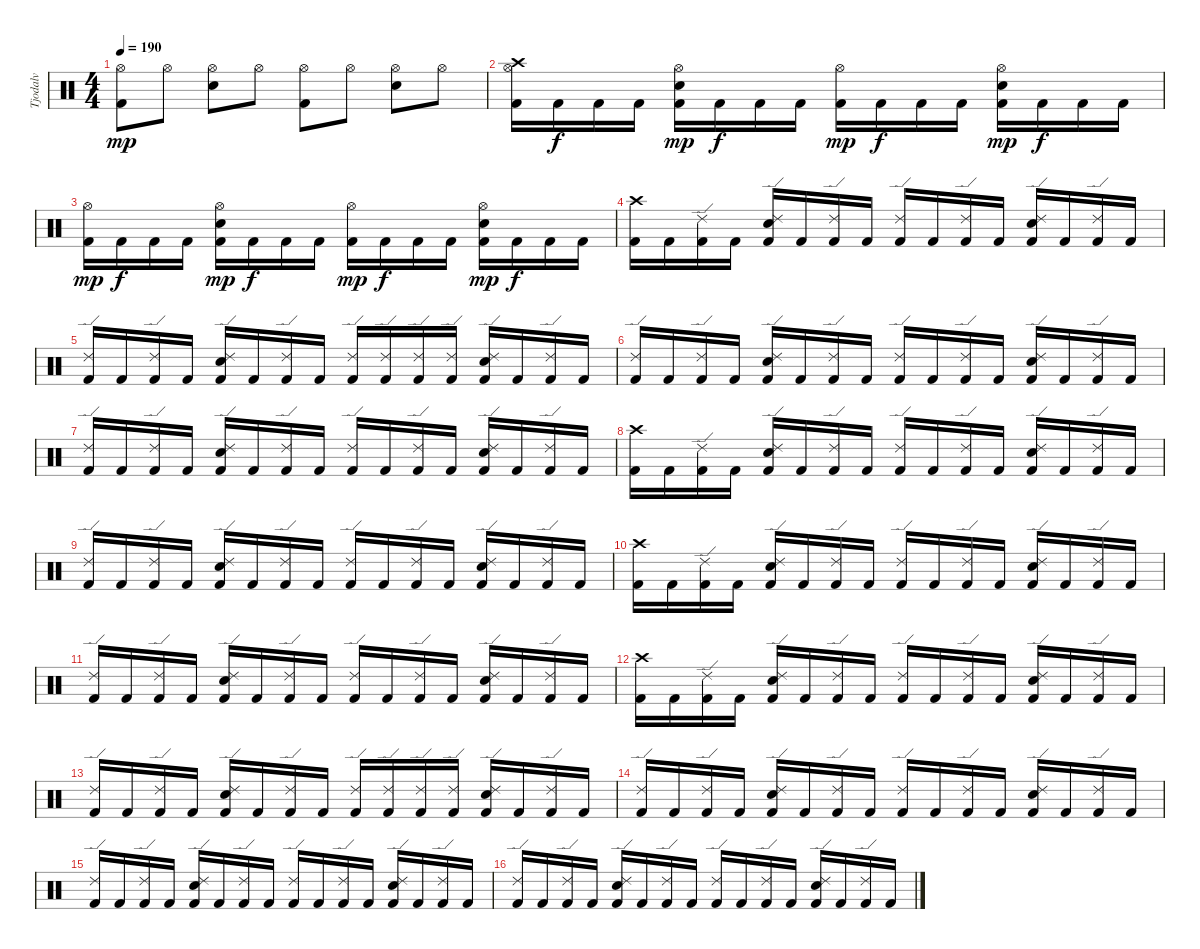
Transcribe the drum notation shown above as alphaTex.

\track ("Tjodalv" "Tjodalv") {instrument percussion}
\staff {score}
\articulation defaults
\ts (4 4)
\tempo 190
\clef neutral
\ks c
("Hi-Hat (open)" "Kick (hit) 2").8{dy mp} "Hi-Hat (open)".8 ("Hi-Hat (open)" "Electric Snare (hit)").8 "Hi-Hat (open)".8 ("Hi-Hat (open)" "Kick (hit) 2").8 "Hi-Hat (open)".8 ("Hi-Hat (open)" "Electric Snare (hit)").8 "Hi-Hat (open)".8 |
("Crash high (hit)" "Hi-Hat (open)" "Kick (hit) 2").16 "Kick (hit) 2".16{dy f} "Kick (hit) 2".16 "Kick (hit) 2".16 ("Hi-Hat (open)" "Electric Snare (hit)" "Kick (hit) 2").16{dy mp} "Kick (hit) 2".16{dy f} "Kick (hit) 2".16 "Kick (hit) 2".16 ("Hi-Hat (open)" "Kick (hit) 2").16{dy mp} "Kick (hit) 2".16{dy f} "Kick (hit) 2".16 "Kick (hit) 2".16 ("Hi-Hat (open)" "Electric Snare (hit)" "Kick (hit) 2").16{dy mp} "Kick (hit) 2".16{dy f} "Kick (hit) 2".16 "Kick (hit) 2".16 |
("Hi-Hat (open)" "Kick (hit) 2").16{dy mp} "Kick (hit) 2".16{dy f} "Kick (hit) 2".16 "Kick (hit) 2".16 ("Hi-Hat (open)" "Electric Snare (hit)" "Kick (hit) 2").16{dy mp} "Kick (hit) 2".16{dy f} "Kick (hit) 2".16 "Kick (hit) 2".16 ("Hi-Hat (open)" "Kick (hit) 2").16{dy mp} "Kick (hit) 2".16{dy f} "Kick (hit) 2".16 "Kick (hit) 2".16 ("Hi-Hat (open)" "Electric Snare (hit)" "Kick (hit) 2").16{dy mp} "Kick (hit) 2".16{dy f} "Kick (hit) 2".16 "Kick (hit) 2".16 |
("Crash high (hit)" "Kick (hit) 2").16 "Kick (hit) 2".16 ("Ride (edge) 2" "Kick (hit) 2").16 "Kick (hit) 2".16 ("Ride (edge) 2" "Electric Snare (hit)" "Kick (hit) 2").16 "Kick (hit) 2".16 ("Ride (edge) 2" "Kick (hit) 2").16 "Kick (hit) 2".16 ("Ride (edge) 2" "Kick (hit) 2").16 "Kick (hit) 2".16 ("Ride (edge) 2" "Kick (hit) 2").16 "Kick (hit) 2".16 ("Ride (edge) 2" "Electric Snare (hit)" "Kick (hit) 2").16 "Kick (hit) 2".16 ("Ride (edge) 2" "Kick (hit) 2").16 "Kick (hit) 2".16 |
("Ride (edge) 2" "Kick (hit) 2").16 "Kick (hit) 2".16 ("Ride (edge) 2" "Kick (hit) 2").16 "Kick (hit) 2".16 ("Ride (edge) 2" "Electric Snare (hit)" "Kick (hit) 2").16 "Kick (hit) 2".16 ("Ride (edge) 2" "Kick (hit) 2").16 "Kick (hit) 2".16 ("Ride (edge) 2" "Kick (hit) 2").16 ("Ride (edge) 2" "Kick (hit) 2").16 ("Ride (edge) 2" "Kick (hit) 2").16 ("Ride (edge) 2" "Kick (hit) 2").16 ("Ride (edge) 2" "Electric Snare (hit)" "Kick (hit) 2").16 "Kick (hit) 2".16 ("Ride (edge) 2" "Kick (hit) 2").16 "Kick (hit) 2".16 |
("Ride (edge) 2" "Kick (hit) 2").16 "Kick (hit) 2".16 ("Ride (edge) 2" "Kick (hit) 2").16 "Kick (hit) 2".16 ("Ride (edge) 2" "Electric Snare (hit)" "Kick (hit) 2").16 "Kick (hit) 2".16 ("Ride (edge) 2" "Kick (hit) 2").16 "Kick (hit) 2".16 ("Ride (edge) 2" "Kick (hit) 2").16 "Kick (hit) 2".16 ("Ride (edge) 2" "Kick (hit) 2").16 "Kick (hit) 2".16 ("Ride (edge) 2" "Electric Snare (hit)" "Kick (hit) 2").16 "Kick (hit) 2".16 ("Ride (edge) 2" "Kick (hit) 2").16 "Kick (hit) 2".16 |
("Ride (edge) 2" "Kick (hit) 2").16 "Kick (hit) 2".16 ("Ride (edge) 2" "Kick (hit) 2").16 "Kick (hit) 2".16 ("Ride (edge) 2" "Electric Snare (hit)" "Kick (hit) 2").16 "Kick (hit) 2".16 ("Ride (edge) 2" "Kick (hit) 2").16 "Kick (hit) 2".16 ("Ride (edge) 2" "Kick (hit) 2").16 "Kick (hit) 2".16 ("Ride (edge) 2" "Kick (hit) 2").16 "Kick (hit) 2".16 ("Ride (edge) 2" "Electric Snare (hit)" "Kick (hit) 2").16 "Kick (hit) 2".16 ("Ride (edge) 2" "Kick (hit) 2").16 "Kick (hit) 2".16 |
("Crash high (hit)" "Kick (hit) 2").16 "Kick (hit) 2".16 ("Ride (edge) 2" "Kick (hit) 2").16 "Kick (hit) 2".16 ("Ride (edge) 2" "Electric Snare (hit)" "Kick (hit) 2").16 "Kick (hit) 2".16 ("Ride (edge) 2" "Kick (hit) 2").16 "Kick (hit) 2".16 ("Ride (edge) 2" "Kick (hit) 2").16 "Kick (hit) 2".16 ("Ride (edge) 2" "Kick (hit) 2").16 "Kick (hit) 2".16 ("Ride (edge) 2" "Electric Snare (hit)" "Kick (hit) 2").16 "Kick (hit) 2".16 ("Ride (edge) 2" "Kick (hit) 2").16 "Kick (hit) 2".16 |
("Ride (edge) 2" "Kick (hit) 2").16 "Kick (hit) 2".16 ("Ride (edge) 2" "Kick (hit) 2").16 "Kick (hit) 2".16 ("Ride (edge) 2" "Electric Snare (hit)" "Kick (hit) 2").16 "Kick (hit) 2".16 ("Ride (edge) 2" "Kick (hit) 2").16 "Kick (hit) 2".16 ("Ride (edge) 2" "Kick (hit) 2").16 "Kick (hit) 2".16 ("Ride (edge) 2" "Kick (hit) 2").16 "Kick (hit) 2".16 ("Ride (edge) 2" "Electric Snare (hit)" "Kick (hit) 2").16 "Kick (hit) 2".16 ("Ride (edge) 2" "Kick (hit) 2").16 "Kick (hit) 2".16 |
("Crash high (hit)" "Kick (hit) 2").16 "Kick (hit) 2".16 ("Ride (edge) 2" "Kick (hit) 2").16 "Kick (hit) 2".16 ("Ride (edge) 2" "Electric Snare (hit)" "Kick (hit) 2").16 "Kick (hit) 2".16 ("Ride (edge) 2" "Kick (hit) 2").16 "Kick (hit) 2".16 ("Ride (edge) 2" "Kick (hit) 2").16 "Kick (hit) 2".16 ("Ride (edge) 2" "Kick (hit) 2").16 "Kick (hit) 2".16 ("Ride (edge) 2" "Electric Snare (hit)" "Kick (hit) 2").16 "Kick (hit) 2".16 ("Ride (edge) 2" "Kick (hit) 2").16 "Kick (hit) 2".16 |
("Ride (edge) 2" "Kick (hit) 2").16 "Kick (hit) 2".16 ("Ride (edge) 2" "Kick (hit) 2").16 "Kick (hit) 2".16 ("Ride (edge) 2" "Electric Snare (hit)" "Kick (hit) 2").16 "Kick (hit) 2".16 ("Ride (edge) 2" "Kick (hit) 2").16 "Kick (hit) 2".16 ("Ride (edge) 2" "Kick (hit) 2").16 "Kick (hit) 2".16 ("Ride (edge) 2" "Kick (hit) 2").16 "Kick (hit) 2".16 ("Ride (edge) 2" "Electric Snare (hit)" "Kick (hit) 2").16 "Kick (hit) 2".16 ("Ride (edge) 2" "Kick (hit) 2").16 "Kick (hit) 2".16 |
("Crash high (hit)" "Kick (hit) 2").16 "Kick (hit) 2".16 ("Ride (edge) 2" "Kick (hit) 2").16 "Kick (hit) 2".16 ("Ride (edge) 2" "Electric Snare (hit)" "Kick (hit) 2").16 "Kick (hit) 2".16 ("Ride (edge) 2" "Kick (hit) 2").16 "Kick (hit) 2".16 ("Ride (edge) 2" "Kick (hit) 2").16 "Kick (hit) 2".16 ("Ride (edge) 2" "Kick (hit) 2").16 "Kick (hit) 2".16 ("Ride (edge) 2" "Electric Snare (hit)" "Kick (hit) 2").16 "Kick (hit) 2".16 ("Ride (edge) 2" "Kick (hit) 2").16 "Kick (hit) 2".16 |
("Ride (edge) 2" "Kick (hit) 2").16 "Kick (hit) 2".16 ("Ride (edge) 2" "Kick (hit) 2").16 "Kick (hit) 2".16 ("Ride (edge) 2" "Electric Snare (hit)" "Kick (hit) 2").16 "Kick (hit) 2".16 ("Ride (edge) 2" "Kick (hit) 2").16 "Kick (hit) 2".16 ("Ride (edge) 2" "Kick (hit) 2").16 ("Ride (edge) 2" "Kick (hit) 2").16 ("Ride (edge) 2" "Kick (hit) 2").16 ("Ride (edge) 2" "Kick (hit) 2").16 ("Ride (edge) 2" "Electric Snare (hit)" "Kick (hit) 2").16 "Kick (hit) 2".16 ("Ride (edge) 2" "Kick (hit) 2").16 "Kick (hit) 2".16 |
("Ride (edge) 2" "Kick (hit) 2").16 "Kick (hit) 2".16 ("Ride (edge) 2" "Kick (hit) 2").16 "Kick (hit) 2".16 ("Ride (edge) 2" "Electric Snare (hit)" "Kick (hit) 2").16 "Kick (hit) 2".16 ("Ride (edge) 2" "Kick (hit) 2").16 "Kick (hit) 2".16 ("Ride (edge) 2" "Kick (hit) 2").16 "Kick (hit) 2".16 ("Ride (edge) 2" "Kick (hit) 2").16 "Kick (hit) 2".16 ("Ride (edge) 2" "Electric Snare (hit)" "Kick (hit) 2").16 "Kick (hit) 2".16 ("Ride (edge) 2" "Kick (hit) 2").16 "Kick (hit) 2".16 |
("Ride (edge) 2" "Kick (hit) 2").16 "Kick (hit) 2".16 ("Ride (edge) 2" "Kick (hit) 2").16 "Kick (hit) 2".16 ("Ride (edge) 2" "Electric Snare (hit)" "Kick (hit) 2").16 "Kick (hit) 2".16 ("Ride (edge) 2" "Kick (hit) 2").16 "Kick (hit) 2".16 ("Ride (edge) 2" "Kick (hit) 2").16 "Kick (hit) 2".16 ("Ride (edge) 2" "Kick (hit) 2").16 "Kick (hit) 2".16 ("Ride (edge) 2" "Electric Snare (hit)" "Kick (hit) 2").16 "Kick (hit) 2".16 ("Ride (edge) 2" "Kick (hit) 2").16 "Kick (hit) 2".16 |
("Ride (edge) 2" "Kick (hit) 2").16 "Kick (hit) 2".16 ("Ride (edge) 2" "Kick (hit) 2").16 "Kick (hit) 2".16 ("Ride (edge) 2" "Electric Snare (hit)" "Kick (hit) 2").16 "Kick (hit) 2".16 ("Ride (edge) 2" "Kick (hit) 2").16 "Kick (hit) 2".16 ("Ride (edge) 2" "Kick (hit) 2").16 "Kick (hit) 2".16 ("Ride (edge) 2" "Kick (hit) 2").16 "Kick (hit) 2".16 ("Ride (edge) 2" "Electric Snare (hit)" "Kick (hit) 2").16 "Kick (hit) 2".16 ("Ride (edge) 2" "Kick (hit) 2").16 "Kick (hit) 2".16
